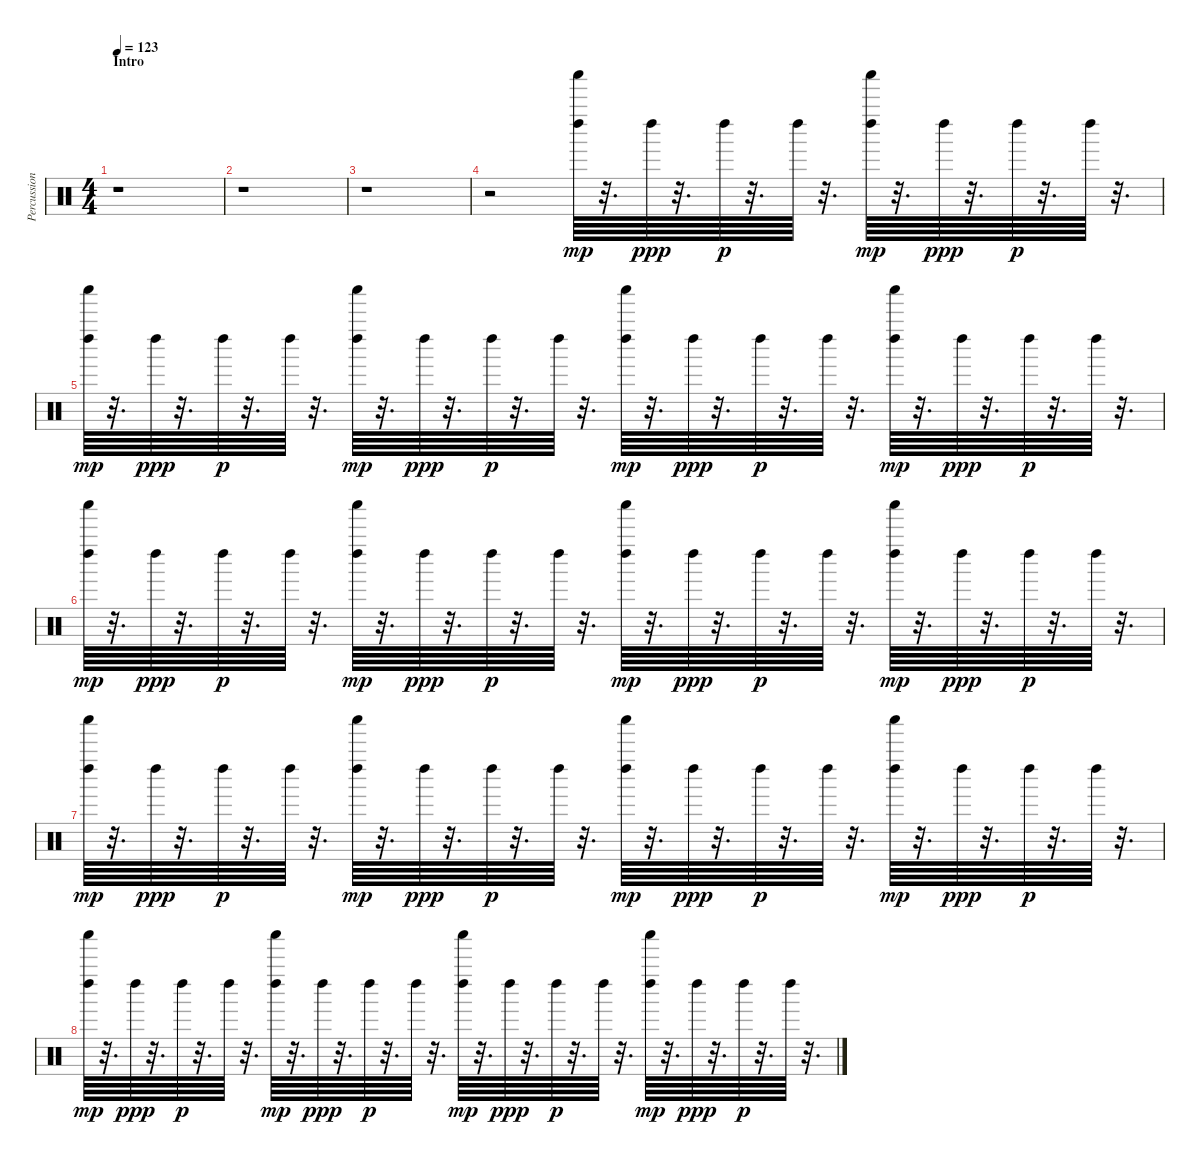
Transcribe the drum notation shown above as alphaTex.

\track ("Percussion" "Percussion") {instrument percussion}
\staff {score}
\articulation defaults
\ts (4 4)
\section ("" "Intro")
\tempo 123
\clef neutral
\ks c
r.1{dy mp} |
r.1 |
r.1 |
r.2 ("Left Maraca (hit)" "Shaker (hit)").64 r.32{d} "Left Maraca (hit)".64{dy ppp} r.32{d} "Left Maraca (hit)".64{dy p} r.32{d} "Left Maraca (hit)".64 r.32{d} ("Left Maraca (hit)" "Shaker (hit)").64{dy mp} r.32{d} "Left Maraca (hit)".64{dy ppp} r.32{d} "Left Maraca (hit)".64{dy p} r.32{d} "Left Maraca (hit)".64 r.32{d} |
("Left Maraca (hit)" "Shaker (hit)").64{dy mp} r.32{d} "Left Maraca (hit)".64{dy ppp} r.32{d} "Left Maraca (hit)".64{dy p} r.32{d} "Left Maraca (hit)".64 r.32{d} ("Left Maraca (hit)" "Shaker (hit)").64{dy mp} r.32{d} "Left Maraca (hit)".64{dy ppp} r.32{d} "Left Maraca (hit)".64{dy p} r.32{d} "Left Maraca (hit)".64 r.32{d} ("Left Maraca (hit)" "Shaker (hit)").64{dy mp} r.32{d} "Left Maraca (hit)".64{dy ppp} r.32{d} "Left Maraca (hit)".64{dy p} r.32{d} "Left Maraca (hit)".64 r.32{d} ("Left Maraca (hit)" "Shaker (hit)").64{dy mp} r.32{d} "Left Maraca (hit)".64{dy ppp} r.32{d} "Left Maraca (hit)".64{dy p} r.32{d} "Left Maraca (hit)".64 r.32{d} |
("Left Maraca (hit)" "Shaker (hit)").64{dy mp} r.32{d} "Left Maraca (hit)".64{dy ppp} r.32{d} "Left Maraca (hit)".64{dy p} r.32{d} "Left Maraca (hit)".64 r.32{d} ("Left Maraca (hit)" "Shaker (hit)").64{dy mp} r.32{d} "Left Maraca (hit)".64{dy ppp} r.32{d} "Left Maraca (hit)".64{dy p} r.32{d} "Left Maraca (hit)".64 r.32{d} ("Left Maraca (hit)" "Shaker (hit)").64{dy mp} r.32{d} "Left Maraca (hit)".64{dy ppp} r.32{d} "Left Maraca (hit)".64{dy p} r.32{d} "Left Maraca (hit)".64 r.32{d} ("Left Maraca (hit)" "Shaker (hit)").64{dy mp} r.32{d} "Left Maraca (hit)".64{dy ppp} r.32{d} "Left Maraca (hit)".64{dy p} r.32{d} "Left Maraca (hit)".64 r.32{d} |
("Left Maraca (hit)" "Shaker (hit)").64{dy mp} r.32{d} "Left Maraca (hit)".64{dy ppp} r.32{d} "Left Maraca (hit)".64{dy p} r.32{d} "Left Maraca (hit)".64 r.32{d} ("Left Maraca (hit)" "Shaker (hit)").64{dy mp} r.32{d} "Left Maraca (hit)".64{dy ppp} r.32{d} "Left Maraca (hit)".64{dy p} r.32{d} "Left Maraca (hit)".64 r.32{d} ("Left Maraca (hit)" "Shaker (hit)").64{dy mp} r.32{d} "Left Maraca (hit)".64{dy ppp} r.32{d} "Left Maraca (hit)".64{dy p} r.32{d} "Left Maraca (hit)".64 r.32{d} ("Left Maraca (hit)" "Shaker (hit)").64{dy mp} r.32{d} "Left Maraca (hit)".64{dy ppp} r.32{d} "Left Maraca (hit)".64{dy p} r.32{d} "Left Maraca (hit)".64 r.32{d} |
("Left Maraca (hit)" "Shaker (hit)").64{dy mp} r.32{d} "Left Maraca (hit)".64{dy ppp} r.32{d} "Left Maraca (hit)".64{dy p} r.32{d} "Left Maraca (hit)".64 r.32{d} ("Left Maraca (hit)" "Shaker (hit)").64{dy mp} r.32{d} "Left Maraca (hit)".64{dy ppp} r.32{d} "Left Maraca (hit)".64{dy p} r.32{d} "Left Maraca (hit)".64 r.32{d} ("Left Maraca (hit)" "Shaker (hit)").64{dy mp} r.32{d} "Left Maraca (hit)".64{dy ppp} r.32{d} "Left Maraca (hit)".64{dy p} r.32{d} "Left Maraca (hit)".64 r.32{d} ("Left Maraca (hit)" "Shaker (hit)").64{dy mp} r.32{d} "Left Maraca (hit)".64{dy ppp} r.32{d} "Left Maraca (hit)".64{dy p} r.32{d} "Left Maraca (hit)".64 r.32{d}
